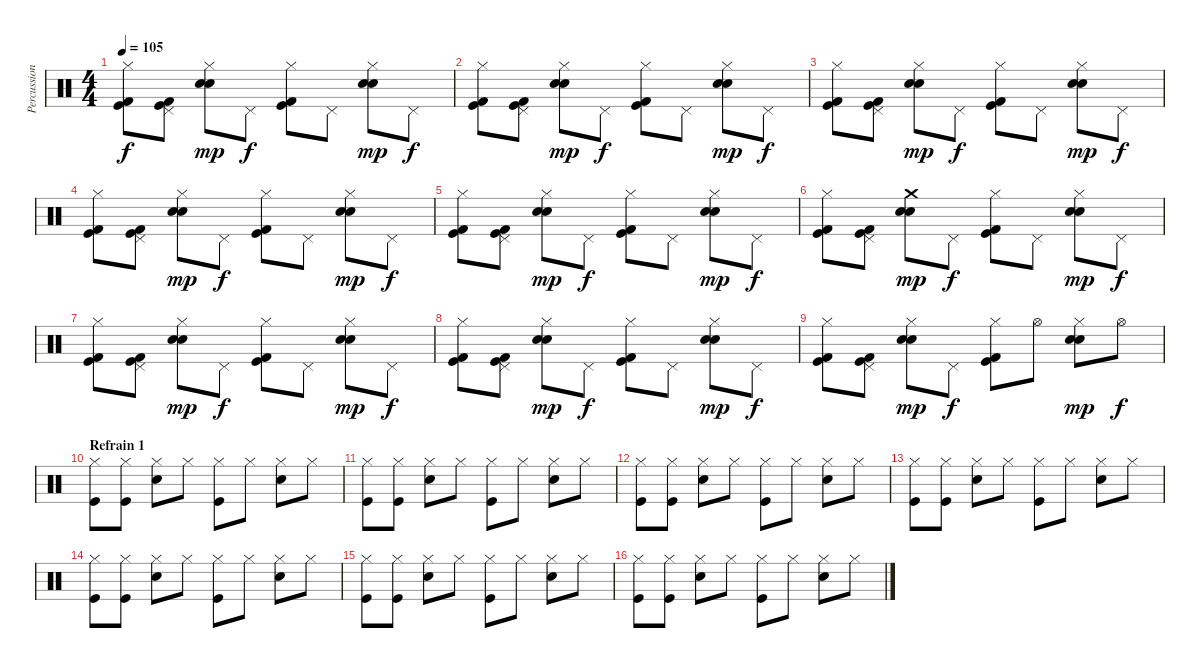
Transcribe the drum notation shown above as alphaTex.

\track ("Percussions" "Percussion") {instrument percussion}
\staff {score}
\articulation defaults
\ts (4 4)
\tempo 105
\clef neutral
\ks c
("Hi-Hat (closed)" "Kick (hit) 2" "Kick (hit)").8{dy f} ("Pedal Hi-Hat (hit)" "Kick (hit) 2" "Kick (hit)").8 ("Hi-Hat (closed)" "Electric Snare (hit)" "Snare (hit) 2").8{dy mp} "Pedal Hi-Hat (hit)".8{dy f} ("Hi-Hat (closed)" "Kick (hit) 2" "Kick (hit)").8 "Pedal Hi-Hat (hit)".8 ("Hi-Hat (closed)" "Electric Snare (hit)" "Snare (hit) 2").8{dy mp} "Pedal Hi-Hat (hit)".8{dy f} |
("Hi-Hat (closed)" "Kick (hit) 2" "Kick (hit)").8 ("Pedal Hi-Hat (hit)" "Kick (hit) 2" "Kick (hit)").8 ("Hi-Hat (closed)" "Electric Snare (hit)" "Snare (hit) 2").8{dy mp} "Pedal Hi-Hat (hit)".8{dy f} ("Hi-Hat (closed)" "Kick (hit) 2" "Kick (hit)").8 "Pedal Hi-Hat (hit)".8 ("Hi-Hat (closed)" "Electric Snare (hit)" "Snare (hit) 2").8{dy mp} "Pedal Hi-Hat (hit)".8{dy f} |
("Hi-Hat (closed)" "Kick (hit) 2" "Kick (hit)").8 ("Pedal Hi-Hat (hit)" "Kick (hit) 2" "Kick (hit)").8 ("Hi-Hat (closed)" "Electric Snare (hit)" "Snare (hit) 2").8{dy mp} "Pedal Hi-Hat (hit)".8{dy f} ("Hi-Hat (closed)" "Kick (hit) 2" "Kick (hit)").8 "Pedal Hi-Hat (hit)".8 ("Hi-Hat (closed)" "Electric Snare (hit)" "Snare (hit) 2").8{dy mp} "Pedal Hi-Hat (hit)".8{dy f} |
("Hi-Hat (closed)" "Kick (hit) 2" "Kick (hit)").8 ("Pedal Hi-Hat (hit)" "Kick (hit) 2" "Kick (hit)").8 ("Hi-Hat (closed)" "Electric Snare (hit)" "Snare (hit) 2").8{dy mp} "Pedal Hi-Hat (hit)".8{dy f} ("Hi-Hat (closed)" "Kick (hit) 2" "Kick (hit)").8 "Pedal Hi-Hat (hit)".8 ("Hi-Hat (closed)" "Electric Snare (hit)" "Snare (hit) 2").8{dy mp} "Pedal Hi-Hat (hit)".8{dy f} |
("Hi-Hat (closed)" "Kick (hit) 2" "Kick (hit)").8 ("Pedal Hi-Hat (hit)" "Kick (hit) 2" "Kick (hit)").8 ("Hi-Hat (closed)" "Electric Snare (hit)" "Snare (hit) 2").8{dy mp} "Pedal Hi-Hat (hit)".8{dy f} ("Hi-Hat (closed)" "Kick (hit) 2" "Kick (hit)").8 "Pedal Hi-Hat (hit)".8 ("Hi-Hat (closed)" "Electric Snare (hit)" "Snare (hit) 2").8{dy mp} "Pedal Hi-Hat (hit)".8{dy f} |
("Hi-Hat (closed)" "Kick (hit) 2" "Kick (hit)").8 ("Pedal Hi-Hat (hit)" "Kick (hit) 2" "Kick (hit)").8 ("Crash medium (hit)" "Electric Snare (hit)" "Snare (hit) 2").8{dy mp} "Pedal Hi-Hat (hit)".8{dy f} ("Hi-Hat (closed)" "Kick (hit) 2" "Kick (hit)").8 "Pedal Hi-Hat (hit)".8 ("Hi-Hat (closed)" "Electric Snare (hit)" "Snare (hit) 2").8{dy mp} "Pedal Hi-Hat (hit)".8{dy f} |
("Hi-Hat (closed)" "Kick (hit) 2" "Kick (hit)").8 ("Pedal Hi-Hat (hit)" "Kick (hit) 2" "Kick (hit)").8 ("Hi-Hat (closed)" "Electric Snare (hit)" "Snare (hit) 2").8{dy mp} "Pedal Hi-Hat (hit)".8{dy f} ("Hi-Hat (closed)" "Kick (hit) 2" "Kick (hit)").8 "Pedal Hi-Hat (hit)".8 ("Hi-Hat (closed)" "Electric Snare (hit)" "Snare (hit) 2").8{dy mp} "Pedal Hi-Hat (hit)".8{dy f} |
("Hi-Hat (closed)" "Kick (hit) 2" "Kick (hit)").8 ("Pedal Hi-Hat (hit)" "Kick (hit) 2" "Kick (hit)").8 ("Hi-Hat (closed)" "Electric Snare (hit)" "Snare (hit) 2").8{dy mp} "Pedal Hi-Hat (hit)".8{dy f} ("Hi-Hat (closed)" "Kick (hit) 2" "Kick (hit)").8 "Pedal Hi-Hat (hit)".8 ("Hi-Hat (closed)" "Electric Snare (hit)" "Snare (hit) 2").8{dy mp} "Pedal Hi-Hat (hit)".8{dy f} |
("Hi-Hat (closed)" "Kick (hit) 2" "Kick (hit)").8 ("Pedal Hi-Hat (hit)" "Kick (hit) 2" "Kick (hit)").8 ("Hi-Hat (closed)" "Electric Snare (hit)" "Snare (hit) 2").8{dy mp} "Pedal Hi-Hat (hit)".8{dy f} ("Hi-Hat (closed)" "Kick (hit) 2" "Kick (hit)").8 "Hi-Hat (open)".8 ("Hi-Hat (closed)" "Electric Snare (hit)" "Snare (hit) 2").8{dy mp} "Hi-Hat (open)".8{dy f} |
\section ("" "Refrain 1")
("Hi-Hat (closed)" "Kick (hit)").8 ("Hi-Hat (closed)" "Kick (hit)").8 ("Hi-Hat (closed)" "Electric Snare (hit)").8 "Hi-Hat (closed)".8 ("Hi-Hat (closed)" "Kick (hit)").8 "Hi-Hat (closed)".8 ("Hi-Hat (closed)" "Electric Snare (hit)").8 "Hi-Hat (closed)".8 |
("Hi-Hat (closed)" "Kick (hit)").8 ("Hi-Hat (closed)" "Kick (hit)").8 ("Hi-Hat (closed)" "Electric Snare (hit)").8 "Hi-Hat (closed)".8 ("Hi-Hat (closed)" "Kick (hit)").8 "Hi-Hat (closed)".8 ("Hi-Hat (closed)" "Electric Snare (hit)").8 "Hi-Hat (closed)".8 |
("Hi-Hat (closed)" "Kick (hit)").8 ("Hi-Hat (closed)" "Kick (hit)").8 ("Hi-Hat (closed)" "Electric Snare (hit)").8 "Hi-Hat (closed)".8 ("Hi-Hat (closed)" "Kick (hit)").8 "Hi-Hat (closed)".8 ("Hi-Hat (closed)" "Electric Snare (hit)").8 "Hi-Hat (closed)".8 |
("Hi-Hat (closed)" "Kick (hit)").8 ("Hi-Hat (closed)" "Kick (hit)").8 ("Hi-Hat (closed)" "Electric Snare (hit)").8 "Hi-Hat (closed)".8 ("Hi-Hat (closed)" "Kick (hit)").8 "Hi-Hat (closed)".8 ("Hi-Hat (closed)" "Electric Snare (hit)").8 "Hi-Hat (closed)".8 |
("Hi-Hat (closed)" "Kick (hit)").8 ("Hi-Hat (closed)" "Kick (hit)").8 ("Hi-Hat (closed)" "Electric Snare (hit)").8 "Hi-Hat (closed)".8 ("Hi-Hat (closed)" "Kick (hit)").8 "Hi-Hat (closed)".8 ("Hi-Hat (closed)" "Electric Snare (hit)").8 "Hi-Hat (closed)".8 |
("Hi-Hat (closed)" "Kick (hit)").8 ("Hi-Hat (closed)" "Kick (hit)").8 ("Hi-Hat (closed)" "Electric Snare (hit)").8 "Hi-Hat (closed)".8 ("Hi-Hat (closed)" "Kick (hit)").8 "Hi-Hat (closed)".8 ("Hi-Hat (closed)" "Electric Snare (hit)").8 "Hi-Hat (closed)".8 |
("Hi-Hat (closed)" "Kick (hit)").8 ("Hi-Hat (closed)" "Kick (hit)").8 ("Hi-Hat (closed)" "Electric Snare (hit)").8 "Hi-Hat (closed)".8 ("Hi-Hat (closed)" "Kick (hit)").8 "Hi-Hat (closed)".8 ("Hi-Hat (closed)" "Electric Snare (hit)").8 "Hi-Hat (closed)".8
